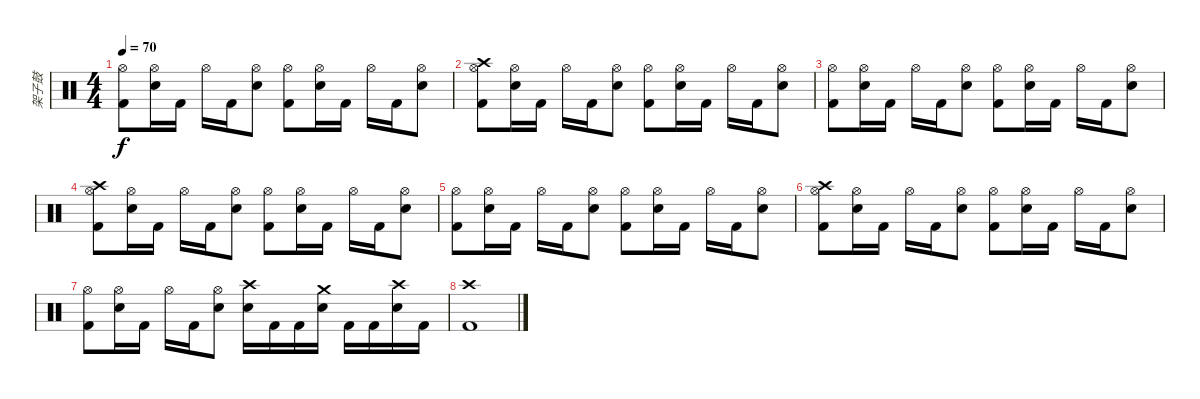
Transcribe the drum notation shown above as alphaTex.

\track ("架子鼓" "架子鼓") {instrument percussion}
\staff {score}
\articulation defaults
\ts (4 4)
\tempo 70
\clef neutral
\ks c
("Hi-Hat (open)" "Kick (hit) 2").8{dy f} ("Hi-Hat (open)" "Snare (hit) 2").16 "Kick (hit) 2".16 "Hi-Hat (open)".16 "Kick (hit) 2".16 ("Hi-Hat (open)" "Snare (hit) 2").8 ("Hi-Hat (open)" "Kick (hit) 2").8 ("Hi-Hat (open)" "Snare (hit) 2").16 "Kick (hit) 2".16 "Hi-Hat (open)".16 "Kick (hit) 2".16 ("Hi-Hat (open)" "Snare (hit) 2").8 |
("Crash high (hit)" "Hi-Hat (open)" "Kick (hit) 2").8 ("Hi-Hat (open)" "Snare (hit) 2").16 "Kick (hit) 2".16 "Hi-Hat (open)".16 "Kick (hit) 2".16 ("Hi-Hat (open)" "Snare (hit) 2").8 ("Hi-Hat (open)" "Kick (hit) 2").8 ("Hi-Hat (open)" "Snare (hit) 2").16 "Kick (hit) 2".16 "Hi-Hat (open)".16 "Kick (hit) 2".16 ("Hi-Hat (open)" "Snare (hit) 2").8 |
("Hi-Hat (open)" "Kick (hit) 2").8 ("Hi-Hat (open)" "Snare (hit) 2").16 "Kick (hit) 2".16 "Hi-Hat (open)".16 "Kick (hit) 2".16 ("Hi-Hat (open)" "Snare (hit) 2").8 ("Hi-Hat (open)" "Kick (hit) 2").8 ("Hi-Hat (open)" "Snare (hit) 2").16 "Kick (hit) 2".16 "Hi-Hat (open)".16 "Kick (hit) 2".16 ("Hi-Hat (open)" "Snare (hit) 2").8 |
("Crash high (hit)" "Hi-Hat (open)" "Kick (hit) 2").8 ("Hi-Hat (open)" "Snare (hit) 2").16 "Kick (hit) 2".16 "Hi-Hat (open)".16 "Kick (hit) 2".16 ("Hi-Hat (open)" "Snare (hit) 2").8 ("Hi-Hat (open)" "Kick (hit) 2").8 ("Hi-Hat (open)" "Snare (hit) 2").16 "Kick (hit) 2".16 "Hi-Hat (open)".16 "Kick (hit) 2".16 ("Hi-Hat (open)" "Snare (hit) 2").8 |
("Hi-Hat (open)" "Kick (hit) 2").8 ("Hi-Hat (open)" "Snare (hit) 2").16 "Kick (hit) 2".16 "Hi-Hat (open)".16 "Kick (hit) 2".16 ("Hi-Hat (open)" "Snare (hit) 2").8 ("Hi-Hat (open)" "Kick (hit) 2").8 ("Hi-Hat (open)" "Snare (hit) 2").16 "Kick (hit) 2".16 "Hi-Hat (open)".16 "Kick (hit) 2".16 ("Hi-Hat (open)" "Snare (hit) 2").8 |
("Crash high (hit)" "Hi-Hat (open)" "Kick (hit) 2").8 ("Hi-Hat (open)" "Snare (hit) 2").16 "Kick (hit) 2".16 "Hi-Hat (open)".16 "Kick (hit) 2".16 ("Hi-Hat (open)" "Snare (hit) 2").8 ("Hi-Hat (open)" "Kick (hit) 2").8 ("Hi-Hat (open)" "Snare (hit) 2").16 "Kick (hit) 2".16 "Hi-Hat (open)".16 "Kick (hit) 2".16 ("Hi-Hat (open)" "Snare (hit) 2").8 |
("Hi-Hat (open)" "Kick (hit) 2").8 ("Hi-Hat (open)" "Snare (hit) 2").16 "Kick (hit) 2".16 "Hi-Hat (open)".16 "Kick (hit) 2".16 ("Hi-Hat (open)" "Snare (hit) 2").8 ("Crash high (hit)" "Snare (hit) 2").16 "Kick (hit) 2".16 "Kick (hit) 2".16 ("Crash medium (hit)" "Snare (hit) 2").16 "Kick (hit) 2".16 "Kick (hit) 2".16 ("Crash high (hit)" "Snare (hit) 2").16 "Kick (hit) 2".16 |
("Crash high (hit)" "Kick (hit) 2").1
